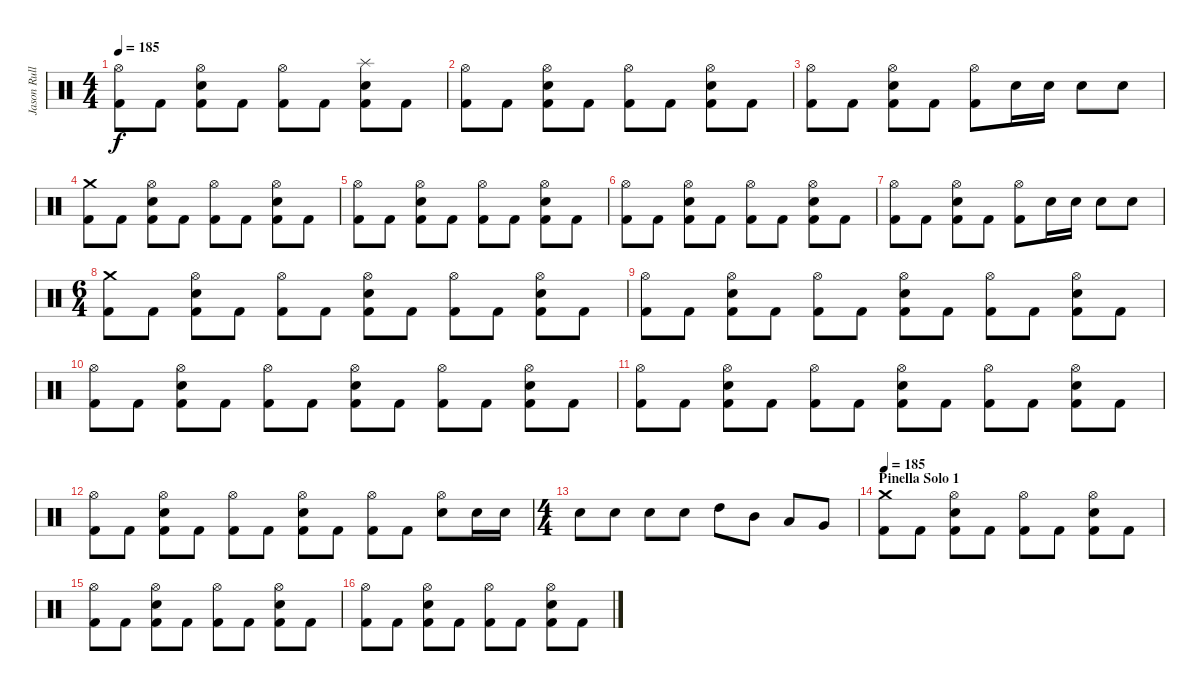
\track ("Jason Rullo" "Jason Rull") {instrument percussion}
\staff {score}
\articulation defaults
\ts (4 4)
\tempo 185
\clef neutral
\ks c
("Hi-Hat (open)" "Kick (hit) 2").8{dy f} "Kick (hit) 2".8 ("Hi-Hat (open)" "Electric Snare (hit)" "Kick (hit) 2").8 "Kick (hit) 2".8 ("Hi-Hat (open)" "Kick (hit) 2").8 "Kick (hit) 2".8 ("Splash (hit)" "Electric Snare (hit)" "Kick (hit) 2").8 "Kick (hit) 2".8 |
("Hi-Hat (open)" "Kick (hit) 2").8 "Kick (hit) 2".8 ("Hi-Hat (open)" "Electric Snare (hit)" "Kick (hit) 2").8 "Kick (hit) 2".8 ("Hi-Hat (open)" "Kick (hit) 2").8 "Kick (hit) 2".8 ("Hi-Hat (open)" "Electric Snare (hit)" "Kick (hit) 2").8 "Kick (hit) 2".8 |
("Hi-Hat (open)" "Kick (hit) 2").8 "Kick (hit) 2".8 ("Hi-Hat (open)" "Electric Snare (hit)" "Kick (hit) 2").8 "Kick (hit) 2".8 ("Hi-Hat (open)" "Kick (hit) 2").8 "Electric Snare (hit)".16 "Electric Snare (hit)".16 "Electric Snare (hit)".8 "Electric Snare (hit)".8 |
("Crash medium (hit)" "Kick (hit) 2").8 "Kick (hit) 2".8 ("Hi-Hat (open)" "Electric Snare (hit)" "Kick (hit) 2").8 "Kick (hit) 2".8 ("Hi-Hat (open)" "Kick (hit) 2").8 "Kick (hit) 2".8 ("Hi-Hat (open)" "Electric Snare (hit)" "Kick (hit) 2").8 "Kick (hit) 2".8 |
("Hi-Hat (open)" "Kick (hit) 2").8 "Kick (hit) 2".8 ("Hi-Hat (open)" "Electric Snare (hit)" "Kick (hit) 2").8 "Kick (hit) 2".8 ("Hi-Hat (open)" "Kick (hit) 2").8 "Kick (hit) 2".8 ("Hi-Hat (open)" "Electric Snare (hit)" "Kick (hit) 2").8 "Kick (hit) 2".8 |
("Hi-Hat (open)" "Kick (hit) 2").8 "Kick (hit) 2".8 ("Hi-Hat (open)" "Electric Snare (hit)" "Kick (hit) 2").8 "Kick (hit) 2".8 ("Hi-Hat (open)" "Kick (hit) 2").8 "Kick (hit) 2".8 ("Hi-Hat (open)" "Electric Snare (hit)" "Kick (hit) 2").8 "Kick (hit) 2".8 |
("Hi-Hat (open)" "Kick (hit) 2").8 "Kick (hit) 2".8 ("Hi-Hat (open)" "Electric Snare (hit)" "Kick (hit) 2").8 "Kick (hit) 2".8 ("Hi-Hat (open)" "Kick (hit) 2").8 "Electric Snare (hit)".16 "Electric Snare (hit)".16 "Electric Snare (hit)".8 "Electric Snare (hit)".8 |
\ts (6 4)
("Crash medium (hit)" "Kick (hit) 2").8 "Kick (hit) 2".8 ("Hi-Hat (open)" "Electric Snare (hit)" "Kick (hit) 2").8 "Kick (hit) 2".8 ("Hi-Hat (open)" "Kick (hit) 2").8 "Kick (hit) 2".8 ("Hi-Hat (open)" "Electric Snare (hit)" "Kick (hit) 2").8 "Kick (hit) 2".8 ("Hi-Hat (open)" "Kick (hit) 2").8 "Kick (hit) 2".8 ("Hi-Hat (open)" "Electric Snare (hit)" "Kick (hit) 2").8 "Kick (hit) 2".8 |
("Hi-Hat (open)" "Kick (hit) 2").8 "Kick (hit) 2".8 ("Hi-Hat (open)" "Electric Snare (hit)" "Kick (hit) 2").8 "Kick (hit) 2".8 ("Hi-Hat (open)" "Kick (hit) 2").8 "Kick (hit) 2".8 ("Hi-Hat (open)" "Electric Snare (hit)" "Kick (hit) 2").8 "Kick (hit) 2".8 ("Hi-Hat (open)" "Kick (hit) 2").8 "Kick (hit) 2".8 ("Hi-Hat (open)" "Electric Snare (hit)" "Kick (hit) 2").8 "Kick (hit) 2".8 |
("Hi-Hat (open)" "Kick (hit) 2").8 "Kick (hit) 2".8 ("Hi-Hat (open)" "Electric Snare (hit)" "Kick (hit) 2").8 "Kick (hit) 2".8 ("Hi-Hat (open)" "Kick (hit) 2").8 "Kick (hit) 2".8 ("Hi-Hat (open)" "Electric Snare (hit)" "Kick (hit) 2").8 "Kick (hit) 2".8 ("Hi-Hat (open)" "Kick (hit) 2").8 "Kick (hit) 2".8 ("Hi-Hat (open)" "Electric Snare (hit)" "Kick (hit) 2").8 "Kick (hit) 2".8 |
("Hi-Hat (open)" "Kick (hit) 2").8 "Kick (hit) 2".8 ("Hi-Hat (open)" "Electric Snare (hit)" "Kick (hit) 2").8 "Kick (hit) 2".8 ("Hi-Hat (open)" "Kick (hit) 2").8 "Kick (hit) 2".8 ("Hi-Hat (open)" "Electric Snare (hit)" "Kick (hit) 2").8 "Kick (hit) 2".8 ("Hi-Hat (open)" "Kick (hit) 2").8 "Kick (hit) 2".8 ("Hi-Hat (open)" "Electric Snare (hit)" "Kick (hit) 2").8 "Kick (hit) 2".8 |
("Hi-Hat (open)" "Kick (hit) 2").8 "Kick (hit) 2".8 ("Hi-Hat (open)" "Electric Snare (hit)" "Kick (hit) 2").8 "Kick (hit) 2".8 ("Hi-Hat (open)" "Kick (hit) 2").8 "Kick (hit) 2".8 ("Hi-Hat (open)" "Electric Snare (hit)" "Kick (hit) 2").8 "Kick (hit) 2".8 ("Hi-Hat (open)" "Kick (hit) 2").8 "Kick (hit) 2".8 ("Hi-Hat (open)" "Electric Snare (hit)").8 "Electric Snare (hit)".16 "Electric Snare (hit)".16 |
\ts (4 4)
"Electric Snare (hit)".8 "Electric Snare (hit)".8 "Electric Snare (hit)".8 "Electric Snare (hit)".8 "High Tom (hit)".8 "Mid Tom (hit)".8 "Low Tom (hit)".8 "Very Low Tom (hit)".8 |
\section ("" "Pinella Solo 1")
\tempo 185
("Crash medium (hit)" "Kick (hit) 2").8 "Kick (hit) 2".8 ("Hi-Hat (open)" "Electric Snare (hit)" "Kick (hit) 2").8 "Kick (hit) 2".8 ("Hi-Hat (open)" "Kick (hit) 2").8 "Kick (hit) 2".8 ("Hi-Hat (open)" "Electric Snare (hit)" "Kick (hit) 2").8 "Kick (hit) 2".8 |
("Hi-Hat (open)" "Kick (hit) 2").8 "Kick (hit) 2".8 ("Hi-Hat (open)" "Electric Snare (hit)" "Kick (hit) 2").8 "Kick (hit) 2".8 ("Hi-Hat (open)" "Kick (hit) 2").8 "Kick (hit) 2".8 ("Hi-Hat (open)" "Electric Snare (hit)" "Kick (hit) 2").8 "Kick (hit) 2".8 |
("Hi-Hat (open)" "Kick (hit) 2").8 "Kick (hit) 2".8 ("Hi-Hat (open)" "Electric Snare (hit)" "Kick (hit) 2").8 "Kick (hit) 2".8 ("Hi-Hat (open)" "Kick (hit) 2").8 "Kick (hit) 2".8 ("Hi-Hat (open)" "Electric Snare (hit)" "Kick (hit) 2").8 "Kick (hit) 2".8
